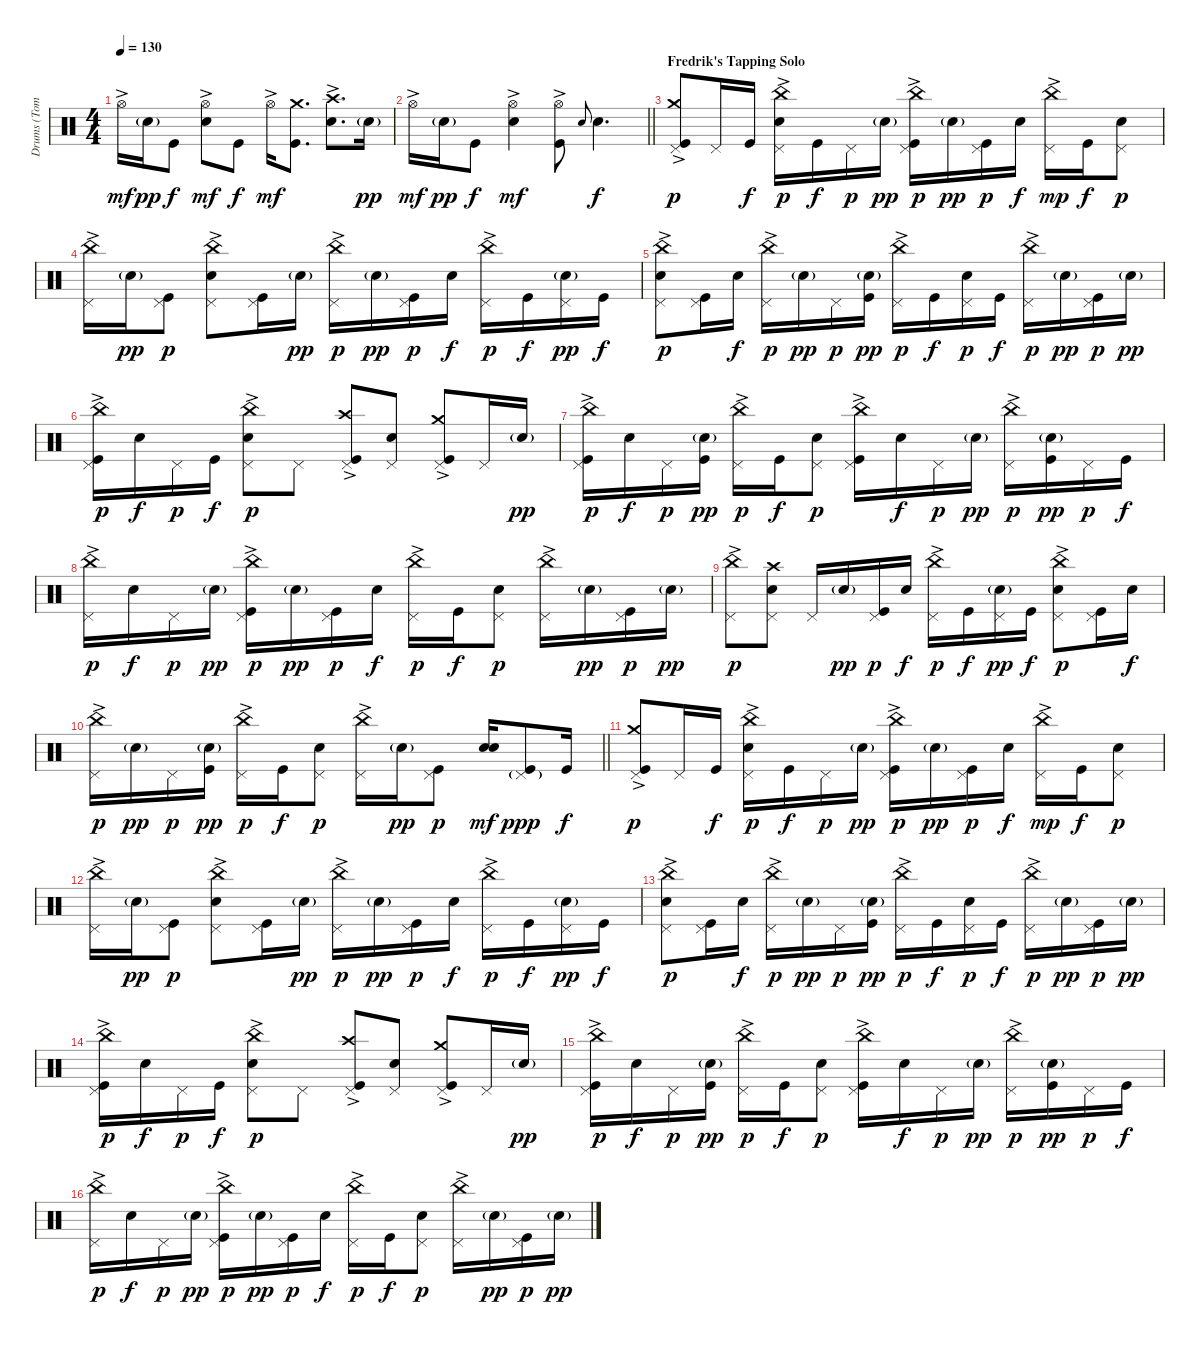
\track ("Drums (Tomas Haake)" "Drums (Tom") {instrument percussion}
\staff {score}
\articulation defaults
\ts (4 4)
\tempo 130
\clef neutral
\ks c "Hi-Hat (open)"{ac}.16{dy mf} "Electric Snare (hit)"{g}.16{dy pp} "Kick (hit)".8{dy f}
("Hi-Hat (open)"{ac} "Electric Snare (hit)").8{dy mf} "Kick (hit)".8{dy f} "Hi-Hat (open)"{ac}.16{dy mf} ("Crash medium (hit)" "Kick (hit)").8{d} ("Crash high (hit)"{ac} "Electric Snare (hit)").8{d} "Electric Snare (hit)"{g}.16{dy pp} |
\barLineRight lightlight "Hi-Hat (open)"{ac}.16{dy mf} "Electric Snare (hit)"{g}.16{dy pp} "Kick (hit)".8{dy f}
("Hi-Hat (open)"{ac} "Electric Snare (hit)").4{dy mf} ("Hi-Hat (open)"{ac} "Kick (hit)").8 "Electric Snare (hit)".8{gr onbeat} "Electric Snare (hit)".4{d dy f} |
\section ("" "Fredrik's Tapping Solo")
("Crash medium (hit)"{ac} "Pedal Hi-Hat (hit)" "Kick (hit)").8{dy p} "Pedal Hi-Hat (hit)".16 "Kick (hit)".16{dy f} ("China (hit)"{ac} "Pedal Hi-Hat (hit)" "Electric Snare (hit)").16{dy p} "Kick (hit)".16{dy f} "Pedal Hi-Hat (hit)".16{dy p} "Electric Snare (hit)"{g}.16{dy pp} ("China (hit)"{ac} "Pedal Hi-Hat (hit)" "Kick (hit)").16{dy p} "Electric Snare (hit)"{g}.16{dy pp} ("Pedal Hi-Hat (hit)" "Kick (hit)").16{dy p} "Electric Snare (hit)".16{dy f} ("China (hit)"{ac} "Pedal Hi-Hat (hit)").16{dy mp} "Kick (hit)".16{dy f} ("Pedal Hi-Hat (hit)" "Electric Snare (hit)").8{dy p} |
("China (hit)"{ac} "Pedal Hi-Hat (hit)").16 "Electric Snare (hit)"{g}.16{dy pp} ("Pedal Hi-Hat (hit)" "Kick (hit)").8{dy p} ("China (hit)"{ac} "Pedal Hi-Hat (hit)" "Electric Snare (hit)").8 ("Pedal Hi-Hat (hit)" "Kick (hit)").16 "Electric Snare (hit)"{g}.16{dy pp} ("China (hit)"{ac} "Pedal Hi-Hat (hit)").16{dy p} "Electric Snare (hit)"{g}.16{dy pp} ("Pedal Hi-Hat (hit)" "Kick (hit)").16{dy p} "Electric Snare (hit)".16{dy f} ("China (hit)"{ac} "Pedal Hi-Hat (hit)").16{dy p} "Kick (hit)".16{dy f} ("Pedal Hi-Hat (hit)" "Electric Snare (hit)"{g}).16{dy pp} "Kick (hit)".16{dy f} |
("China (hit)"{ac} "Pedal Hi-Hat (hit)" "Electric Snare (hit)").8{dy p} ("Pedal Hi-Hat (hit)" "Kick (hit)").16 "Electric Snare (hit)".16{dy f} ("China (hit)"{ac} "Pedal Hi-Hat (hit)").16{dy p} "Electric Snare (hit)"{g}.16{dy pp} "Pedal Hi-Hat (hit)".16{dy p} ("Electric Snare (hit)"{g} "Kick (hit)").16{dy pp} ("China (hit)"{ac} "Pedal Hi-Hat (hit)").16{dy p} "Kick (hit)".16{dy f} ("Pedal Hi-Hat (hit)" "Electric Snare (hit)").16{dy p} "Kick (hit)".16{dy f} ("China (hit)"{ac} "Pedal Hi-Hat (hit)").16{dy p} "Electric Snare (hit)"{g}.16{dy pp} ("Pedal Hi-Hat (hit)" "Kick (hit)").16{dy p} "Electric Snare (hit)"{g}.16{dy pp} |
("China (hit)"{ac} "Pedal Hi-Hat (hit)" "Kick (hit)").16{dy p} "Electric Snare (hit)".16{dy f} "Pedal Hi-Hat (hit)".16{dy p} "Kick (hit)".16{dy f} ("China (hit)"{ac} "Pedal Hi-Hat (hit)" "Electric Snare (hit)").8{dy p} "Pedal Hi-Hat (hit)".8 ("Crash high (hit)"{ac} "Pedal Hi-Hat (hit)" "Kick (hit)").8 ("Pedal Hi-Hat (hit)" "Electric Snare (hit)").8 ("Crash medium (hit)"{ac} "Pedal Hi-Hat (hit)" "Kick (hit)").8 "Pedal Hi-Hat (hit)".16 "Electric Snare (hit)"{g}.16{dy pp} |
("China (hit)"{ac} "Pedal Hi-Hat (hit)" "Kick (hit)").16{dy p} "Electric Snare (hit)".16{dy f} "Pedal Hi-Hat (hit)".16{dy p} ("Electric Snare (hit)"{g} "Kick (hit)").16{dy pp} ("China (hit)"{ac} "Pedal Hi-Hat (hit)").16{dy p} "Kick (hit)".16{dy f} ("Pedal Hi-Hat (hit)" "Electric Snare (hit)").8{dy p} ("China (hit)"{ac} "Pedal Hi-Hat (hit)" "Kick (hit)").16 "Electric Snare (hit)".16{dy f} "Pedal Hi-Hat (hit)".16{dy p} "Electric Snare (hit)"{g}.16{dy pp} ("China (hit)"{ac} "Pedal Hi-Hat (hit)").16{dy p} ("Electric Snare (hit)"{g} "Kick (hit)").16{dy pp} "Pedal Hi-Hat (hit)".16{dy p} "Kick (hit)".16{dy f} |
("China (hit)"{ac} "Pedal Hi-Hat (hit)").16{dy p} "Electric Snare (hit)".16{dy f} "Pedal Hi-Hat (hit)".16{dy p} "Electric Snare (hit)"{g}.16{dy pp} ("China (hit)"{ac} "Pedal Hi-Hat (hit)" "Kick (hit)").16{dy p} "Electric Snare (hit)"{g}.16{dy pp} ("Pedal Hi-Hat (hit)" "Kick (hit)").16{dy p} "Electric Snare (hit)".16{dy f} ("China (hit)"{ac} "Pedal Hi-Hat (hit)").16{dy p} "Kick (hit)".16{dy f} ("Pedal Hi-Hat (hit)" "Electric Snare (hit)").8{dy p} ("China (hit)"{ac} "Pedal Hi-Hat (hit)").16 "Electric Snare (hit)"{g}.16{dy pp} ("Pedal Hi-Hat (hit)" "Kick (hit)").16{dy p} "Electric Snare (hit)"{g}.16{dy pp} |
("China (hit)"{ac} "Pedal Hi-Hat (hit)").8{dy p} ("Crash high (hit)" "Pedal Hi-Hat (hit)" "Electric Snare (hit)").8 "Pedal Hi-Hat (hit)".16 "Electric Snare (hit)"{g}.16{dy pp} ("Pedal Hi-Hat (hit)" "Kick (hit)").16{dy p} "Electric Snare (hit)".16{dy f} ("China (hit)"{ac} "Pedal Hi-Hat (hit)").16{dy p} "Kick (hit)".16{dy f} ("Pedal Hi-Hat (hit)" "Electric Snare (hit)"{g}).16{dy pp} "Kick (hit)".16{dy f} ("China (hit)"{ac} "Pedal Hi-Hat (hit)" "Electric Snare (hit)").8{dy p} ("Pedal Hi-Hat (hit)" "Kick (hit)").16 "Electric Snare (hit)".16{dy f} |
\barLineRight lightlight
("China (hit)"{ac} "Pedal Hi-Hat (hit)").16{dy p} "Electric Snare (hit)"{g}.16{dy pp} "Pedal Hi-Hat (hit)".16{dy p} ("Electric Snare (hit)"{g} "Kick (hit)").16{dy pp} ("China (hit)"{ac} "Pedal Hi-Hat (hit)").16{dy p} "Kick (hit)".16{dy f} ("Pedal Hi-Hat (hit)" "Electric Snare (hit)").8{dy p} ("China (hit)"{ac} "Pedal Hi-Hat (hit)").16 "Electric Snare (hit)"{g}.16{dy pp} ("Pedal Hi-Hat (hit)" "Kick (hit)").8{dy p} ("Electric Snare (hit)" "Electric Snare (hit)").16{bd 480 dy mf} ("Pedal Hi-Hat (hit)"{g} "Kick (hit)").8{dy ppp} "Kick (hit)".16{dy f} |
("Crash medium (hit)"{ac} "Pedal Hi-Hat (hit)" "Kick (hit)").8{dy p} "Pedal Hi-Hat (hit)".16 "Kick (hit)".16{dy f} ("China (hit)"{ac} "Pedal Hi-Hat (hit)" "Electric Snare (hit)").16{dy p} "Kick (hit)".16{dy f} "Pedal Hi-Hat (hit)".16{dy p} "Electric Snare (hit)"{g}.16{dy pp} ("China (hit)"{ac} "Pedal Hi-Hat (hit)" "Kick (hit)").16{dy p} "Electric Snare (hit)"{g}.16{dy pp} ("Pedal Hi-Hat (hit)" "Kick (hit)").16{dy p} "Electric Snare (hit)".16{dy f} ("China (hit)"{ac} "Pedal Hi-Hat (hit)").16{dy mp} "Kick (hit)".16{dy f} ("Pedal Hi-Hat (hit)" "Electric Snare (hit)").8{dy p} |
("China (hit)"{ac} "Pedal Hi-Hat (hit)").16 "Electric Snare (hit)"{g}.16{dy pp} ("Pedal Hi-Hat (hit)" "Kick (hit)").8{dy p} ("China (hit)"{ac} "Pedal Hi-Hat (hit)" "Electric Snare (hit)").8 ("Pedal Hi-Hat (hit)" "Kick (hit)").16 "Electric Snare (hit)"{g}.16{dy pp} ("China (hit)"{ac} "Pedal Hi-Hat (hit)").16{dy p} "Electric Snare (hit)"{g}.16{dy pp} ("Pedal Hi-Hat (hit)" "Kick (hit)").16{dy p} "Electric Snare (hit)".16{dy f} ("China (hit)"{ac} "Pedal Hi-Hat (hit)").16{dy p} "Kick (hit)".16{dy f} ("Pedal Hi-Hat (hit)" "Electric Snare (hit)"{g}).16{dy pp} "Kick (hit)".16{dy f} |
("China (hit)"{ac} "Pedal Hi-Hat (hit)" "Electric Snare (hit)").8{dy p} ("Pedal Hi-Hat (hit)" "Kick (hit)").16 "Electric Snare (hit)".16{dy f} ("China (hit)"{ac} "Pedal Hi-Hat (hit)").16{dy p} "Electric Snare (hit)"{g}.16{dy pp} "Pedal Hi-Hat (hit)".16{dy p} ("Electric Snare (hit)"{g} "Kick (hit)").16{dy pp} ("China (hit)"{ac} "Pedal Hi-Hat (hit)").16{dy p} "Kick (hit)".16{dy f} ("Pedal Hi-Hat (hit)" "Electric Snare (hit)").16{dy p} "Kick (hit)".16{dy f} ("China (hit)"{ac} "Pedal Hi-Hat (hit)").16{dy p} "Electric Snare (hit)"{g}.16{dy pp} ("Pedal Hi-Hat (hit)" "Kick (hit)").16{dy p} "Electric Snare (hit)"{g}.16{dy pp} |
("China (hit)"{ac} "Pedal Hi-Hat (hit)" "Kick (hit)").16{dy p} "Electric Snare (hit)".16{dy f} "Pedal Hi-Hat (hit)".16{dy p} "Kick (hit)".16{dy f} ("China (hit)"{ac} "Pedal Hi-Hat (hit)" "Electric Snare (hit)").8{dy p} "Pedal Hi-Hat (hit)".8 ("Crash high (hit)"{ac} "Pedal Hi-Hat (hit)" "Kick (hit)").8 ("Pedal Hi-Hat (hit)" "Electric Snare (hit)").8 ("Crash medium (hit)"{ac} "Pedal Hi-Hat (hit)" "Kick (hit)").8 "Pedal Hi-Hat (hit)".16 "Electric Snare (hit)"{g}.16{dy pp} |
("China (hit)"{ac} "Pedal Hi-Hat (hit)" "Kick (hit)").16{dy p} "Electric Snare (hit)".16{dy f} "Pedal Hi-Hat (hit)".16{dy p} ("Electric Snare (hit)"{g} "Kick (hit)").16{dy pp} ("China (hit)"{ac} "Pedal Hi-Hat (hit)").16{dy p} "Kick (hit)".16{dy f} ("Pedal Hi-Hat (hit)" "Electric Snare (hit)").8{dy p} ("China (hit)"{ac} "Pedal Hi-Hat (hit)" "Kick (hit)").16 "Electric Snare (hit)".16{dy f} "Pedal Hi-Hat (hit)".16{dy p} "Electric Snare (hit)"{g}.16{dy pp} ("China (hit)"{ac} "Pedal Hi-Hat (hit)").16{dy p} ("Electric Snare (hit)"{g} "Kick (hit)").16{dy pp} "Pedal Hi-Hat (hit)".16{dy p} "Kick (hit)".16{dy f} |
("China (hit)"{ac} "Pedal Hi-Hat (hit)").16{dy p} "Electric Snare (hit)".16{dy f} "Pedal Hi-Hat (hit)".16{dy p} "Electric Snare (hit)"{g}.16{dy pp} ("China (hit)"{ac} "Pedal Hi-Hat (hit)" "Kick (hit)").16{dy p} "Electric Snare (hit)"{g}.16{dy pp} ("Pedal Hi-Hat (hit)" "Kick (hit)").16{dy p} "Electric Snare (hit)".16{dy f} ("China (hit)"{ac} "Pedal Hi-Hat (hit)").16{dy p} "Kick (hit)".16{dy f} ("Pedal Hi-Hat (hit)" "Electric Snare (hit)").8{dy p} ("China (hit)"{ac} "Pedal Hi-Hat (hit)").16 "Electric Snare (hit)"{g}.16{dy pp} ("Pedal Hi-Hat (hit)" "Kick (hit)").16{dy p} "Electric Snare (hit)"{g}.16{dy pp}
